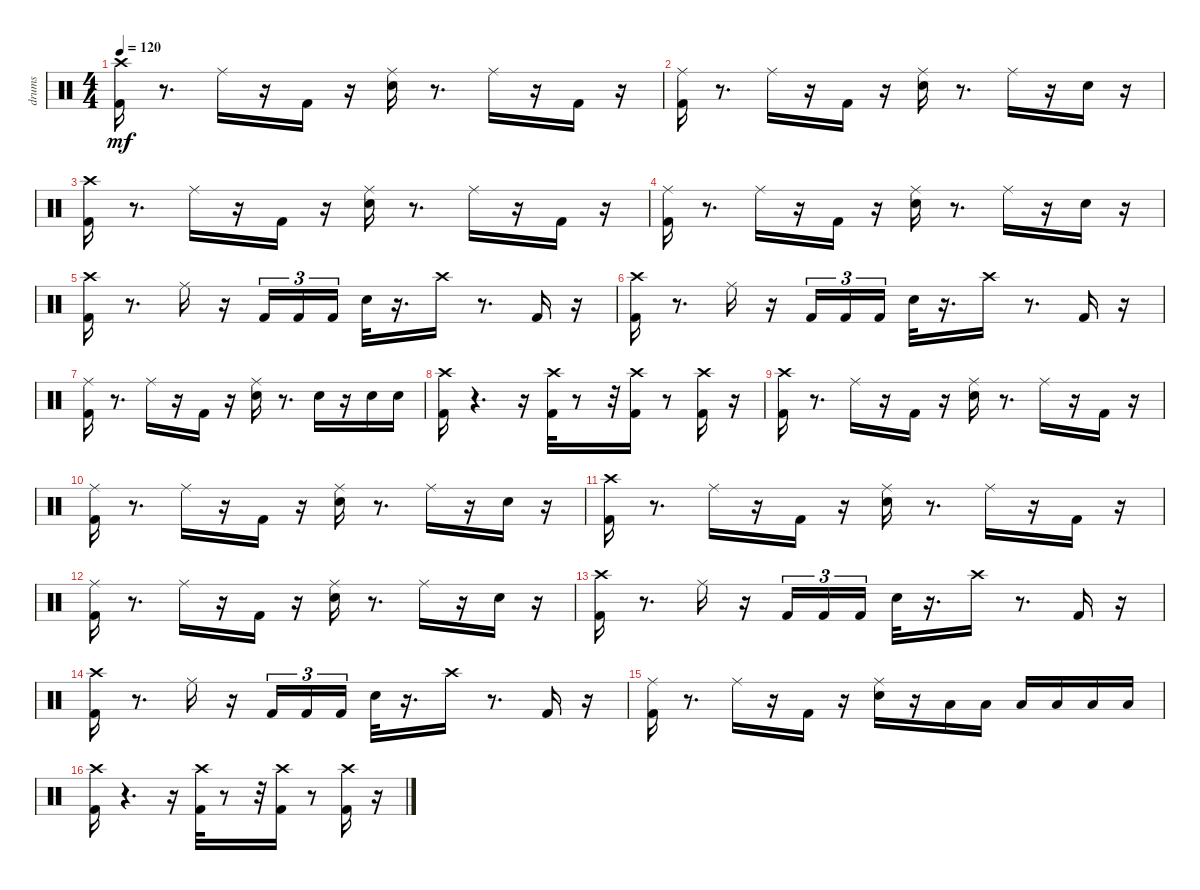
\track ("drums               " "drums     ") {instrument percussion}
\staff {score}
\articulation defaults
\ts (4 4)
\tempo 120
\tempo 135
\tempo 120
\clef neutral
\ks c
("Kick (hit) 2" "Crash high (hit)").16{dy mf} r.8{d} "Ride (middle)".16 r.16 "Kick (hit) 2".16 r.16 ("Ride (middle)" "Snare (hit) 2").16 r.8{d} "Ride (middle)".16 r.16 "Kick (hit) 2".16 r.16 |
("Kick (hit) 2" "Ride (middle)").16 r.8{d} "Ride (middle)".16 r.16 "Kick (hit) 2".16 r.16 ("Ride (middle)" "Snare (hit) 2").16 r.8{d} "Ride (middle)".16 r.16 "Snare (hit) 2".16 r.16 |
("Kick (hit) 2" "Crash high (hit)").16 r.8{d} "Ride (middle)".16 r.16 "Kick (hit) 2".16 r.16 ("Ride (middle)" "Snare (hit) 2").16 r.8{d} "Ride (middle)".16 r.16 "Kick (hit) 2".16 r.16 |
("Kick (hit) 2" "Ride (middle)").16 r.8{d} "Ride (middle)".16 r.16 "Kick (hit) 2".16 r.16 ("Ride (middle)" "Snare (hit) 2").16 r.8{d} "Ride (middle)".16 r.16 "Snare (hit) 2".16 r.16 |
("Kick (hit) 2" "Crash high (hit)").16 r.8{d} "Ride (middle)".16 r.16 "Kick (hit) 2".16{tu (3 2)} "Kick (hit) 2".16{tu (3 2)} "Kick (hit) 2".16{tu (3 2)} "Snare (hit) 2".32 r.16{d} "Crash high (hit)".16 r.8{d} "Kick (hit) 2".16 r.16 |
("Kick (hit) 2" "Crash high (hit)").16 r.8{d} "Ride (middle)".16 r.16 "Kick (hit) 2".16{tu (3 2)} "Kick (hit) 2".16{tu (3 2)} "Kick (hit) 2".16{tu (3 2)} "Snare (hit) 2".32 r.16{d} "Crash high (hit)".16 r.8{d} "Kick (hit) 2".16 r.16 |
("Kick (hit) 2" "Ride (middle)").16 r.8{d} "Ride (middle)".16 r.16 "Kick (hit) 2".16 r.16 ("Snare (hit) 2" "Ride (middle)").16 r.8{d} "Snare (hit) 2".16 r.16 "Snare (hit) 2".16 "Snare (hit) 2".16 |
("Kick (hit) 2" "Crash high (hit)").16 r.4{d} r.16 ("Crash high (hit)" "Kick (hit) 2").32 r.8 r.32 ("Kick (hit) 2" "Crash high (hit)").16 r.8 ("Kick (hit) 2" "Crash high (hit)").16 r.16 |
("Kick (hit) 2" "Crash high (hit)").16 r.8{d} "Ride (middle)".16 r.16 "Kick (hit) 2".16 r.16 ("Ride (middle)" "Snare (hit) 2").16 r.8{d} "Ride (middle)".16 r.16 "Kick (hit) 2".16 r.16 |
("Kick (hit) 2" "Ride (middle)").16 r.8{d} "Ride (middle)".16 r.16 "Kick (hit) 2".16 r.16 ("Ride (middle)" "Snare (hit) 2").16 r.8{d} "Ride (middle)".16 r.16 "Snare (hit) 2".16 r.16 |
("Kick (hit) 2" "Crash high (hit)").16 r.8{d} "Ride (middle)".16 r.16 "Kick (hit) 2".16 r.16 ("Ride (middle)" "Snare (hit) 2").16 r.8{d} "Ride (middle)".16 r.16 "Kick (hit) 2".16 r.16 |
("Kick (hit) 2" "Ride (middle)").16 r.8{d} "Ride (middle)".16 r.16 "Kick (hit) 2".16 r.16 ("Ride (middle)" "Snare (hit) 2").16 r.8{d} "Ride (middle)".16 r.16 "Snare (hit) 2".16 r.16 |
("Kick (hit) 2" "Crash high (hit)").16 r.8{d} "Ride (middle)".16 r.16 "Kick (hit) 2".16{tu (3 2)} "Kick (hit) 2".16{tu (3 2)} "Kick (hit) 2".16{tu (3 2)} "Snare (hit) 2".32 r.16{d} "Crash high (hit)".16 r.8{d} "Kick (hit) 2".16 r.16 |
("Kick (hit) 2" "Crash high (hit)").16 r.8{d} "Ride (middle)".16 r.16 "Kick (hit) 2".16{tu (3 2)} "Kick (hit) 2".16{tu (3 2)} "Kick (hit) 2".16{tu (3 2)} "Snare (hit) 2".32 r.16{d} "Crash high (hit)".16 r.8{d} "Kick (hit) 2".16 r.16 |
("Kick (hit) 2" "Ride (middle)").16 r.8{d} "Ride (middle)".16 r.16 "Kick (hit) 2".16 r.16 ("Snare (hit) 2" "Ride (middle)").16 r.16 "Low Tom (hit)".16 "Low Tom (hit)".16 "Low Tom (hit)".16 "Low Floor Tom (hit)".16 "Low Floor Tom (hit)".16 "Low Floor Tom (hit)".16 |
("Kick (hit) 2" "Crash high (hit)").16 r.4{d} r.16 ("Crash high (hit)" "Kick (hit) 2").32 r.8 r.32 ("Kick (hit) 2" "Crash high (hit)").16 r.8 ("Kick (hit) 2" "Crash high (hit)").16 r.16
